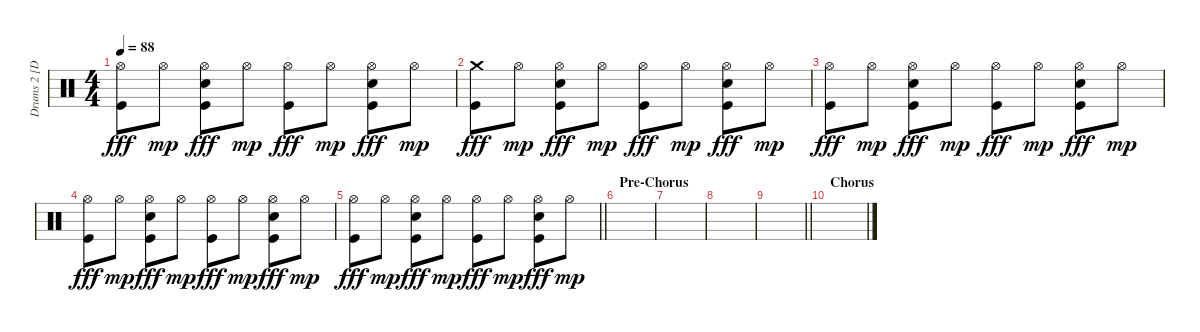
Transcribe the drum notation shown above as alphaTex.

\track ("Drums 2 [Doom]" "Drums 2 [D") {instrument percussion}
\staff {score}
\articulation defaults
\ts (4 4)
\tempo 88
\clef neutral
\ks c
("Hi-Hat (open)" "Kick (hit)").8{dy fff} "Hi-Hat (open)".8{dy mp} ("Hi-Hat (open)" "Snare (hit) 2" "Kick (hit)").8{dy fff} "Hi-Hat (open)".8{dy mp} ("Hi-Hat (open)" "Kick (hit)").8{dy fff} "Hi-Hat (open)".8{dy mp} ("Hi-Hat (open)" "Snare (hit) 2" "Kick (hit)").8{dy fff} "Hi-Hat (open)".8{dy mp} |
("Crash medium (hit)" "Kick (hit)").8{dy fff} "Hi-Hat (open)".8{dy mp} ("Hi-Hat (open)" "Snare (hit) 2" "Kick (hit)").8{dy fff} "Hi-Hat (open)".8{dy mp} ("Hi-Hat (open)" "Kick (hit)").8{dy fff} "Hi-Hat (open)".8{dy mp} ("Hi-Hat (open)" "Snare (hit) 2" "Kick (hit)").8{dy fff} "Hi-Hat (open)".8{dy mp} |
("Hi-Hat (open)" "Kick (hit)").8{dy fff} "Hi-Hat (open)".8{dy mp} ("Hi-Hat (open)" "Snare (hit) 2" "Kick (hit)").8{dy fff} "Hi-Hat (open)".8{dy mp} ("Hi-Hat (open)" "Kick (hit)").8{dy fff} "Hi-Hat (open)".8{dy mp} ("Hi-Hat (open)" "Snare (hit) 2" "Kick (hit)").8{dy fff} "Hi-Hat (open)".8{dy mp} |
("Hi-Hat (open)" "Kick (hit)").8{dy fff} "Hi-Hat (open)".8{dy mp} ("Hi-Hat (open)" "Snare (hit) 2" "Kick (hit)").8{dy fff} "Hi-Hat (open)".8{dy mp} ("Hi-Hat (open)" "Kick (hit)").8{dy fff} "Hi-Hat (open)".8{dy mp} ("Hi-Hat (open)" "Snare (hit) 2" "Kick (hit)").8{dy fff} "Hi-Hat (open)".8{dy mp} |
\barLineRight lightlight
("Hi-Hat (open)" "Kick (hit)").8{dy fff} "Hi-Hat (open)".8{dy mp} ("Hi-Hat (open)" "Snare (hit) 2" "Kick (hit)").8{dy fff} "Hi-Hat (open)".8{dy mp} ("Hi-Hat (open)" "Kick (hit)").8{dy fff} "Hi-Hat (open)".8{dy mp} ("Hi-Hat (open)" "Snare (hit) 2" "Kick (hit)").8{dy fff} "Hi-Hat (open)".8{dy mp} |
\section ("" "Pre-Chorus")
|
|
|
\barLineRight lightlight
|
\section ("" "Chorus")
